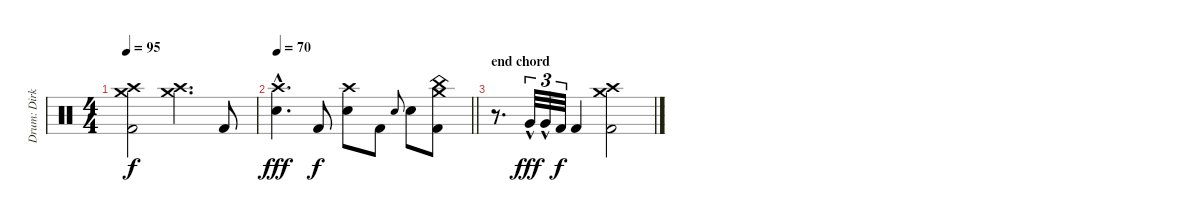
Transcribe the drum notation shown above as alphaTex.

\track ("Drum: Dirk" "Drum: Dirk") {instrument percussion}
\staff {score}
\articulation defaults
\ts (4 4)
\tempo 95
\clef neutral
\ks c
("Crash high (hit)" "Crash medium (hit)" "Kick (hit) 2").2{dy f} ("Crash high (hit)" "Crash medium (hit)").4{d} "Kick (hit) 2".8 |
\tempo 70
\barLineRight lightlight
("Crash high (hit)" "Electric Snare (hit)"{hac}).4{d dy fff} "Kick (hit) 2".8{dy f} ("Crash high (hit)" "Electric Snare (hit)").8 "Kick (hit) 2".8 "Electric Snare (hit)".8{gr onbeat} "Electric Snare (hit)".8 ("China (hit)" "Crash medium (hit)" "Kick (hit) 2").8 |
\section ("" "end chord")
r.8{d} "Very Low Tom (hit)"{hac}.32{tu (3 2) dy fff} "Very Low Tom (hit)"{hac}.32{tu (3 2)} "Kick (hit) 2".32{tu (3 2) dy f} "Kick (hit) 2".4 ("Crash high (hit)" "Crash medium (hit)" "Kick (hit) 2").2
